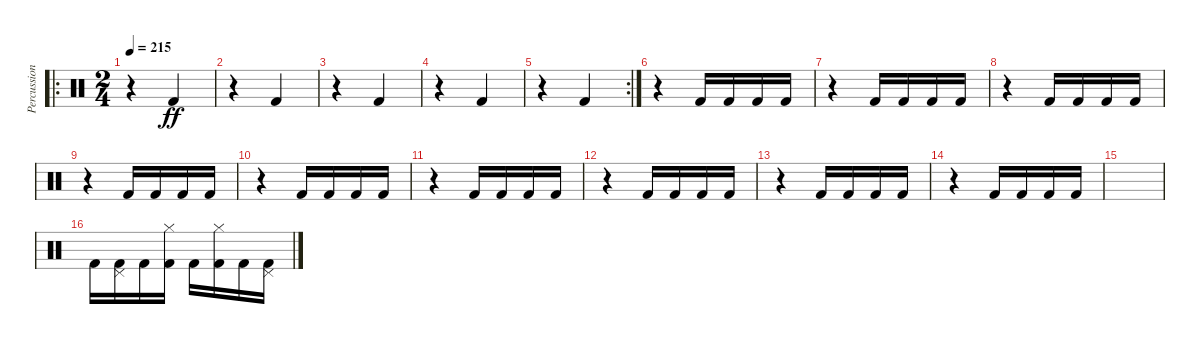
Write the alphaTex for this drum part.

\track ("Percussion" "Percussion") {instrument percussion}
\staff {score}
\articulation defaults
\ro
\ts (2 4)
\tempo 215
\clef neutral
\ks c
r.4{dy ff} "Kick (hit) 2".4 |
r.4 "Kick (hit) 2".4 |
r.4 "Kick (hit) 2".4 |
r.4 "Kick (hit) 2".4 |
\rc 2
r.4 "Kick (hit) 2".4 |
r.4 "Kick (hit) 2".16 "Kick (hit) 2".16 "Kick (hit) 2".16 "Kick (hit) 2".16 |
r.4 "Kick (hit) 2".16 "Kick (hit) 2".16 "Kick (hit) 2".16 "Kick (hit) 2".16 |
r.4 "Kick (hit) 2".16 "Kick (hit) 2".16 "Kick (hit) 2".16 "Kick (hit) 2".16 |
r.4 "Kick (hit) 2".16 "Kick (hit) 2".16 "Kick (hit) 2".16 "Kick (hit) 2".16 |
r.4 "Kick (hit) 2".16 "Kick (hit) 2".16 "Kick (hit) 2".16 "Kick (hit) 2".16 |
r.4 "Kick (hit) 2".16 "Kick (hit) 2".16 "Kick (hit) 2".16 "Kick (hit) 2".16 |
r.4 "Kick (hit) 2".16 "Kick (hit) 2".16 "Kick (hit) 2".16 "Kick (hit) 2".16 |
r.4 "Kick (hit) 2".16 "Kick (hit) 2".16 "Kick (hit) 2".16 "Kick (hit) 2".16 |
r.4 "Kick (hit) 2".16 "Kick (hit) 2".16 "Kick (hit) 2".16 "Kick (hit) 2".16 |
|
"Kick (hit) 2".16 ("Kick (hit) 2" "Pedal Hi-Hat (hit)").16 "Kick (hit) 2".16 ("Kick (hit) 2" "Hi-Hat (closed)").16 "Kick (hit) 2".16 ("Kick (hit) 2" "Hi-Hat (closed)").16 "Kick (hit) 2".16 ("Kick (hit) 2" "Pedal Hi-Hat (hit)").16
